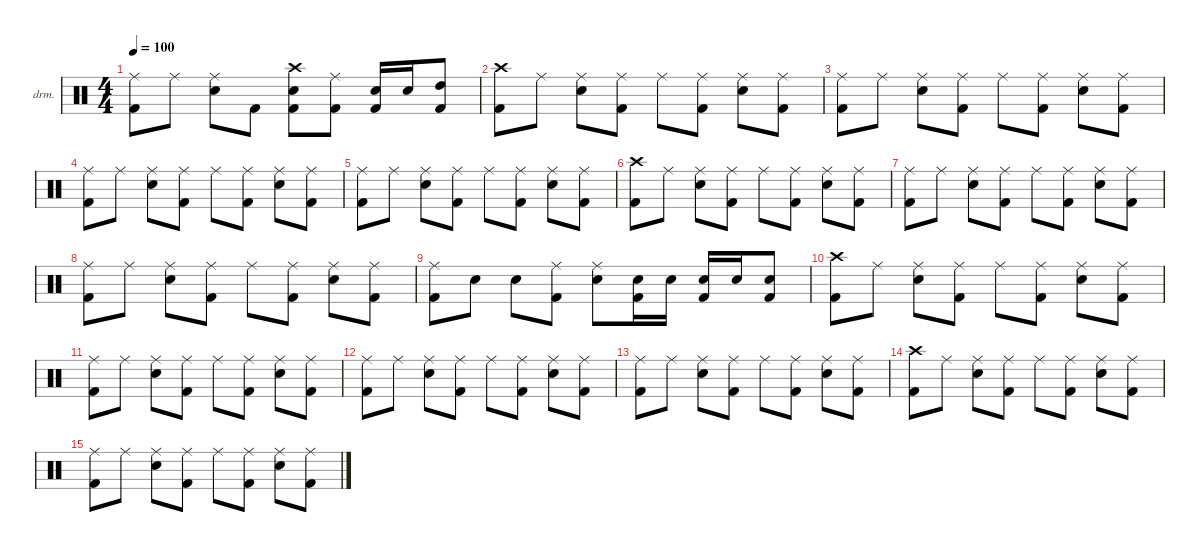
\defaultSystemsLayout 4
\hideDynamics
\bracketExtendMode nobrackets
\firstSystemTrackNameOrientation horizontal
\otherSystemsTrackNameOrientation horizontal
\track ("Drums" "drm.") {instrument percussion}
\staff {score}
\articulation defaults
\ts (4 4)
\tempo 100
\clef neutral
\ks c
("Kick (hit) 2" "Ride (middle)").8{dy f} "Ride (middle)".8 ("Snare (hit) 2" "Ride (middle)").8 "Kick (hit) 2".8 ("Kick (hit) 2" "Snare (hit) 2" "Crash high (hit)").8 ("Kick (hit) 2" "Ride (middle)").8 ("Kick (hit) 2" "Snare (hit) 2").16 "Snare (hit) 2".16 ("Kick (hit) 2" "High Tom (hit)").8 |
("Kick (hit) 2" "Crash high (hit)").8 "Ride (middle)".8 ("Snare (hit) 2" "Ride (middle)").8 ("Kick (hit) 2" "Ride (middle)").8 "Ride (middle)".8 ("Kick (hit) 2" "Ride (middle)").8 ("Snare (hit) 2" "Ride (middle)").8 ("Kick (hit) 2" "Ride (middle)").8 |
("Kick (hit) 2" "Ride (middle)").8 "Ride (middle)".8 ("Snare (hit) 2" "Ride (middle)").8 ("Kick (hit) 2" "Ride (middle)").8 "Ride (middle)".8 ("Kick (hit) 2" "Ride (middle)").8 ("Snare (hit) 2" "Ride (middle)").8 ("Kick (hit) 2" "Ride (middle)").8 |
("Kick (hit) 2" "Ride (middle)").8 "Ride (middle)".8 ("Snare (hit) 2" "Ride (middle)").8 ("Kick (hit) 2" "Ride (middle)").8 "Ride (middle)".8 ("Kick (hit) 2" "Ride (middle)").8 ("Snare (hit) 2" "Ride (middle)").8 ("Kick (hit) 2" "Ride (middle)").8 |
("Kick (hit) 2" "Ride (middle)").8 "Ride (middle)".8 ("Snare (hit) 2" "Ride (middle)").8 ("Kick (hit) 2" "Ride (middle)").8 "Ride (middle)".8 ("Kick (hit) 2" "Ride (middle)").8 ("Snare (hit) 2" "Ride (middle)").8 ("Kick (hit) 2" "Ride (middle)").8 |
("Kick (hit) 2" "Crash high (hit)").8 "Ride (middle)".8 ("Snare (hit) 2" "Ride (middle)").8 ("Kick (hit) 2" "Ride (middle)").8 "Ride (middle)".8 ("Kick (hit) 2" "Ride (middle)").8 ("Snare (hit) 2" "Ride (middle)").8 ("Kick (hit) 2" "Ride (middle)").8 |
("Kick (hit) 2" "Ride (middle)").8 "Ride (middle)".8 ("Snare (hit) 2" "Ride (middle)").8 ("Kick (hit) 2" "Ride (middle)").8 "Ride (middle)".8 ("Kick (hit) 2" "Ride (middle)").8 ("Snare (hit) 2" "Ride (middle)").8 ("Kick (hit) 2" "Ride (middle)").8 |
("Kick (hit) 2" "Ride (middle)").8 "Ride (middle)".8 ("Snare (hit) 2" "Ride (middle)").8 ("Kick (hit) 2" "Ride (middle)").8 "Ride (middle)".8 ("Kick (hit) 2" "Ride (middle)").8 ("Snare (hit) 2" "Ride (middle)").8 ("Kick (hit) 2" "Ride (middle)").8 |
("Kick (hit) 2" "Ride (middle)").8 "Snare (hit) 2".8 "Snare (hit) 2".8 ("Kick (hit) 2" "Ride (middle)").8 ("Snare (hit) 2" "Ride (middle)").8 ("Kick (hit) 2" "Snare (hit) 2").16 "Snare (hit) 2".16 ("Kick (hit) 2" "Snare (hit) 2").16 "Snare (hit) 2".16 ("Kick (hit) 2" "Snare (hit) 2").8 |
("Kick (hit) 2" "Crash high (hit)").8 "Ride (middle)".8 ("Snare (hit) 2" "Ride (middle)").8 ("Kick (hit) 2" "Ride (middle)").8 "Ride (middle)".8 ("Kick (hit) 2" "Ride (middle)").8 ("Snare (hit) 2" "Ride (middle)").8 ("Kick (hit) 2" "Ride (middle)").8 |
("Kick (hit) 2" "Ride (middle)").8 "Ride (middle)".8 ("Snare (hit) 2" "Ride (middle)").8 ("Kick (hit) 2" "Ride (middle)").8 "Ride (middle)".8 ("Kick (hit) 2" "Ride (middle)").8 ("Snare (hit) 2" "Ride (middle)").8 ("Kick (hit) 2" "Ride (middle)").8 |
("Kick (hit) 2" "Ride (middle)").8 "Ride (middle)".8 ("Snare (hit) 2" "Ride (middle)").8 ("Kick (hit) 2" "Ride (middle)").8 "Ride (middle)".8 ("Kick (hit) 2" "Ride (middle)").8 ("Snare (hit) 2" "Ride (middle)").8 ("Kick (hit) 2" "Ride (middle)").8 |
("Kick (hit) 2" "Ride (middle)").8 "Ride (middle)".8 ("Snare (hit) 2" "Ride (middle)").8 ("Kick (hit) 2" "Ride (middle)").8 "Ride (middle)".8 ("Kick (hit) 2" "Ride (middle)").8 ("Snare (hit) 2" "Ride (middle)").8 ("Kick (hit) 2" "Ride (middle)").8 |
("Kick (hit) 2" "Crash high (hit)").8 "Ride (middle)".8 ("Snare (hit) 2" "Ride (middle)").8 ("Kick (hit) 2" "Ride (middle)").8 "Ride (middle)".8 ("Kick (hit) 2" "Ride (middle)").8 ("Snare (hit) 2" "Ride (middle)").8 ("Kick (hit) 2" "Ride (middle)").8 |
("Kick (hit) 2" "Ride (middle)").8 "Ride (middle)".8 ("Snare (hit) 2" "Ride (middle)").8 ("Kick (hit) 2" "Ride (middle)").8 "Ride (middle)".8 ("Kick (hit) 2" "Ride (middle)").8 ("Snare (hit) 2" "Ride (middle)").8 ("Kick (hit) 2" "Ride (middle)").8
